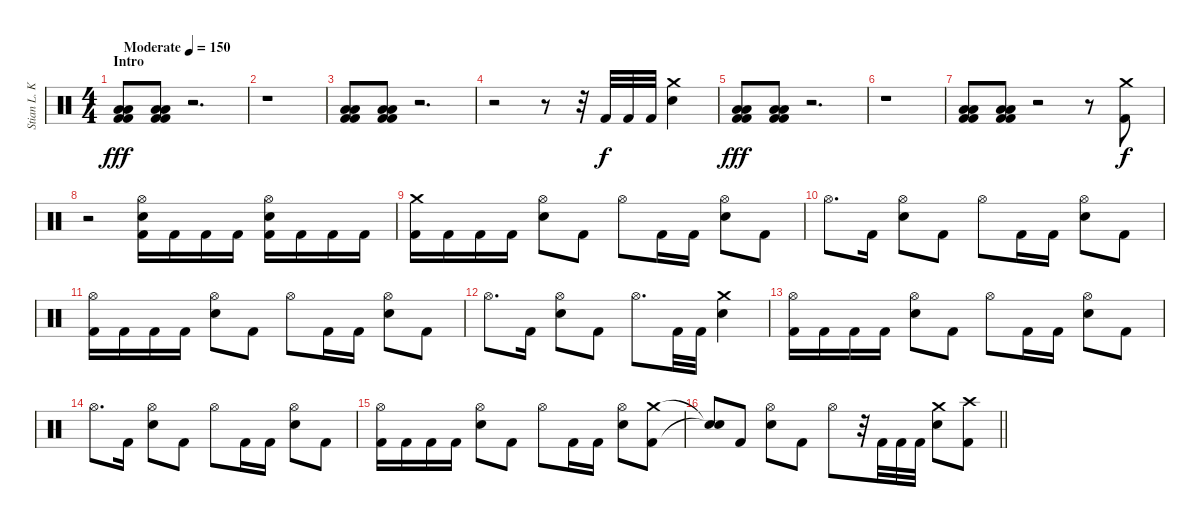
\track ("Stian L. Kristoffersen" "Stian L. K") {instrument percussion}
\staff {score}
\articulation defaults
\ts (4 4)
\section ("" "Intro")
\tempo (150 "Moderate")
\clef neutral
\ks c
("Low Tom (hit)" "Low Tom (hit)" "Kick (hit) 2" "Kick (hit) 2").8{dy fff} ("Low Tom (hit)" "Low Tom (hit)" "Kick (hit) 2" "Kick (hit) 2").8 r.2{d} |
r.1 |
("Low Tom (hit)" "Low Tom (hit)" "Kick (hit) 2" "Kick (hit) 2").8 ("Low Tom (hit)" "Low Tom (hit)" "Kick (hit) 2" "Kick (hit) 2").8 r.2{d} |
r.2 r.8 r.32 "Kick (hit) 2".32{dy f} "Kick (hit) 2".32 "Kick (hit) 2".32 ("Crash medium (hit)" "Electric Snare (hit)").4 |
("Low Tom (hit)" "Low Tom (hit)" "Kick (hit) 2" "Kick (hit) 2").8{dy fff} ("Low Tom (hit)" "Low Tom (hit)" "Kick (hit) 2" "Kick (hit) 2").8 r.2{d} |
r.1 |
("Low Tom (hit)" "Low Tom (hit)" "Kick (hit) 2" "Kick (hit) 2").8 ("Low Tom (hit)" "Low Tom (hit)" "Kick (hit) 2" "Kick (hit) 2").8 r.2 r.8 ("Crash medium (hit)" "Kick (hit) 2").8{dy f} |
r.2 ("Hi-Hat (open)" "Electric Snare (hit)" "Kick (hit) 2").16 "Kick (hit) 2".16 "Kick (hit) 2".16 "Kick (hit) 2".16 ("Hi-Hat (open)" "Electric Snare (hit)" "Kick (hit) 2").16 "Kick (hit) 2".16 "Kick (hit) 2".16 "Kick (hit) 2".16 |
("Crash medium (hit)" "Kick (hit) 2").16 "Kick (hit) 2".16 "Kick (hit) 2".16 "Kick (hit) 2".16 ("Hi-Hat (open)" "Electric Snare (hit)").8 "Kick (hit) 2".8 "Hi-Hat (open)".8 "Kick (hit) 2".16 "Kick (hit) 2".16 ("Hi-Hat (open)" "Electric Snare (hit)").8 "Kick (hit) 2".8 |
"Hi-Hat (open)".8{d} "Kick (hit) 2".16 ("Hi-Hat (open)" "Electric Snare (hit)").8 "Kick (hit) 2".8 "Hi-Hat (open)".8 "Kick (hit) 2".16 "Kick (hit) 2".16 ("Hi-Hat (open)" "Electric Snare (hit)").8 "Kick (hit) 2".8 |
("Hi-Hat (open)" "Kick (hit) 2").16 "Kick (hit) 2".16 "Kick (hit) 2".16 "Kick (hit) 2".16 ("Hi-Hat (open)" "Electric Snare (hit)").8 "Kick (hit) 2".8 "Hi-Hat (open)".8 "Kick (hit) 2".16 "Kick (hit) 2".16 ("Hi-Hat (open)" "Electric Snare (hit)").8 "Kick (hit) 2".8 |
"Hi-Hat (open)".8{d} "Kick (hit) 2".16 ("Hi-Hat (open)" "Electric Snare (hit)").8 "Kick (hit) 2".8 "Hi-Hat (open)".8{d} "Kick (hit) 2".32 "Kick (hit) 2".32 ("Crash medium (hit)" "Electric Snare (hit)").4 |
("Hi-Hat (open)" "Kick (hit) 2").16 "Kick (hit) 2".16 "Kick (hit) 2".16 "Kick (hit) 2".16 ("Hi-Hat (open)" "Electric Snare (hit)").8 "Kick (hit) 2".8 "Hi-Hat (open)".8 "Kick (hit) 2".16 "Kick (hit) 2".16 ("Hi-Hat (open)" "Electric Snare (hit)").8 "Kick (hit) 2".8 |
"Hi-Hat (open)".8{d} "Kick (hit) 2".16 ("Hi-Hat (open)" "Electric Snare (hit)").8 "Kick (hit) 2".8 "Hi-Hat (open)".8 "Kick (hit) 2".16 "Kick (hit) 2".16 ("Hi-Hat (open)" "Electric Snare (hit)").8 "Kick (hit) 2".8 |
("Hi-Hat (open)" "Kick (hit) 2").16 "Kick (hit) 2".16 "Kick (hit) 2".16 "Kick (hit) 2".16 ("Hi-Hat (open)" "Electric Snare (hit)").8 "Kick (hit) 2".8 "Hi-Hat (open)".8 "Kick (hit) 2".16 "Kick (hit) 2".16 ("Hi-Hat (open)" "Electric Snare (hit)").8 ("Crash medium (hit)" "Kick (hit) 2").8 |
\barLineRight lightlight
("Snare (hit)"{t} "Snare (hit)"{t}).8 "Kick (hit) 2".8 ("Hi-Hat (open)" "Electric Snare (hit)").8 "Kick (hit) 2".8 "Hi-Hat (open)".8 r.32 "Kick (hit) 2".32 "Kick (hit) 2".32 "Kick (hit) 2".32 ("Crash medium (hit)" "Electric Snare (hit)").8 ("Crash high (hit)" "Kick (hit) 2").8
